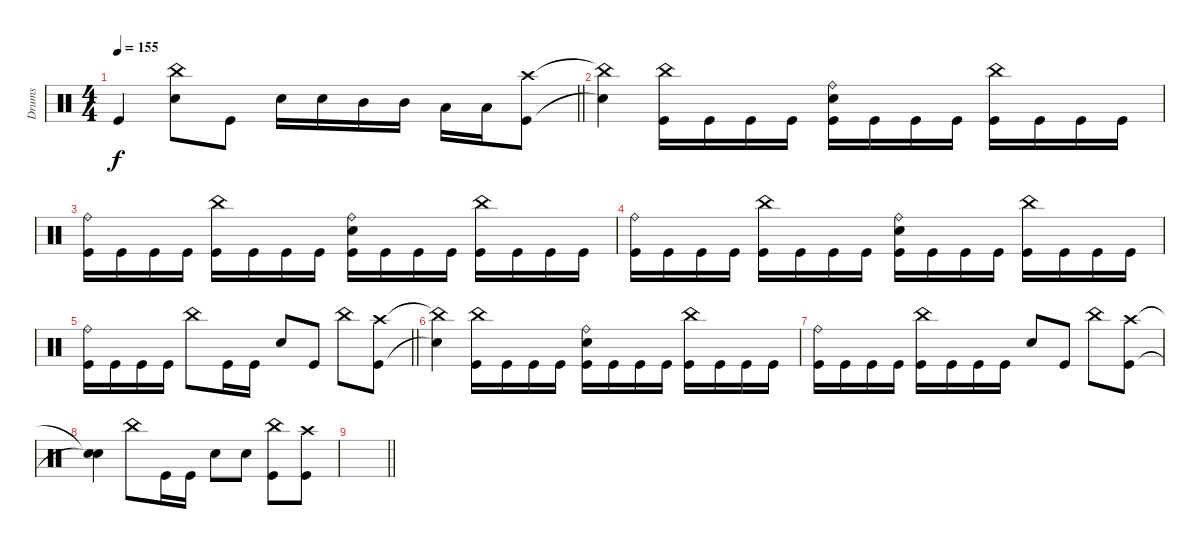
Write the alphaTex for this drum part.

\track ("Drums" "Drums") {instrument percussion}
\staff
\articulation defaults
\ts (4 4)
\tempo 155
\clef neutral
\barLineRight lightlight
\ks c "Kick (hit)"{t}.4{dy f}
("China (hit)" "Electric Snare (hit)").8 "Kick (hit)".8 "Electric Snare (hit)".16 "Electric Snare (hit)".16 "Mid Tom (hit)".16 "Mid Tom (hit)".16 "Low Tom (hit)".16 "Low Tom (hit)".16 ("Crash high (hit)" "Kick (hit)").8 |
("China (hit)"{t} "Snare (hit)"{t}).4 ("China (hit)" "Kick (hit)").16 "Kick (hit)".16 "Kick (hit)".16 "Kick (hit)".16 ("Ride (bell)" "Electric Snare (hit)" "Kick (hit)").16 "Kick (hit)".16 "Kick (hit)".16 "Kick (hit)".16 ("China (hit)" "Kick (hit)").16 "Kick (hit)".16 "Kick (hit)".16 "Kick (hit)".16 |
("Ride (bell)" "Kick (hit)").16 "Kick (hit)".16 "Kick (hit)".16 "Kick (hit)".16 ("China (hit)" "Kick (hit)").16 "Kick (hit)".16 "Kick (hit)".16 "Kick (hit)".16 ("Ride (bell)" "Electric Snare (hit)" "Kick (hit)").16 "Kick (hit)".16 "Kick (hit)".16 "Kick (hit)".16 ("China (hit)" "Kick (hit)").16 "Kick (hit)".16 "Kick (hit)".16 "Kick (hit)".16 |
("Ride (bell)" "Kick (hit)").16 "Kick (hit)".16 "Kick (hit)".16 "Kick (hit)".16 ("China (hit)" "Kick (hit)").16 "Kick (hit)".16 "Kick (hit)".16 "Kick (hit)".16 ("Ride (bell)" "Electric Snare (hit)" "Kick (hit)").16 "Kick (hit)".16 "Kick (hit)".16 "Kick (hit)".16 ("China (hit)" "Kick (hit)").16 "Kick (hit)".16 "Kick (hit)".16 "Kick (hit)".16 |
\barLineRight lightlight
("Ride (bell)" "Kick (hit)").16 "Kick (hit)".16 "Kick (hit)".16 "Kick (hit)".16 "China (hit)".8 "Kick (hit)".16 "Kick (hit)".16 "Electric Snare (hit)".8 "Kick (hit)".8 "China (hit)".8 ("Crash high (hit)" "Kick (hit)").8 |
("China (hit)"{t} "Snare (hit)"{t}).4 ("China (hit)" "Kick (hit)").16 "Kick (hit)".16 "Kick (hit)".16 "Kick (hit)".16 ("Ride (bell)" "Electric Snare (hit)" "Kick (hit)").16 "Kick (hit)".16 "Kick (hit)".16 "Kick (hit)".16 ("China (hit)" "Kick (hit)").16 "Kick (hit)".16 "Kick (hit)".16 "Kick (hit)".16 |
("Ride (bell)" "Kick (hit)").16 "Kick (hit)".16 "Kick (hit)".16 "Kick (hit)".16 ("China (hit)" "Kick (hit)").16 "Kick (hit)".16 "Kick (hit)".16 "Kick (hit)".16 "Electric Snare (hit)".8 "Kick (hit)".8 "China (hit)".8 ("Crash high (hit)" "Kick (hit)").8 |
("Snare (hit)"{t} "Snare (hit)"{t}).4 "China (hit)".8 "Kick (hit)".16 "Kick (hit)".16 "Electric Snare (hit)".8 "Electric Snare (hit)".8 ("China (hit)" "Kick (hit)").8 ("Crash high (hit)" "Kick (hit)").8 |
\barLineRight lightlight
